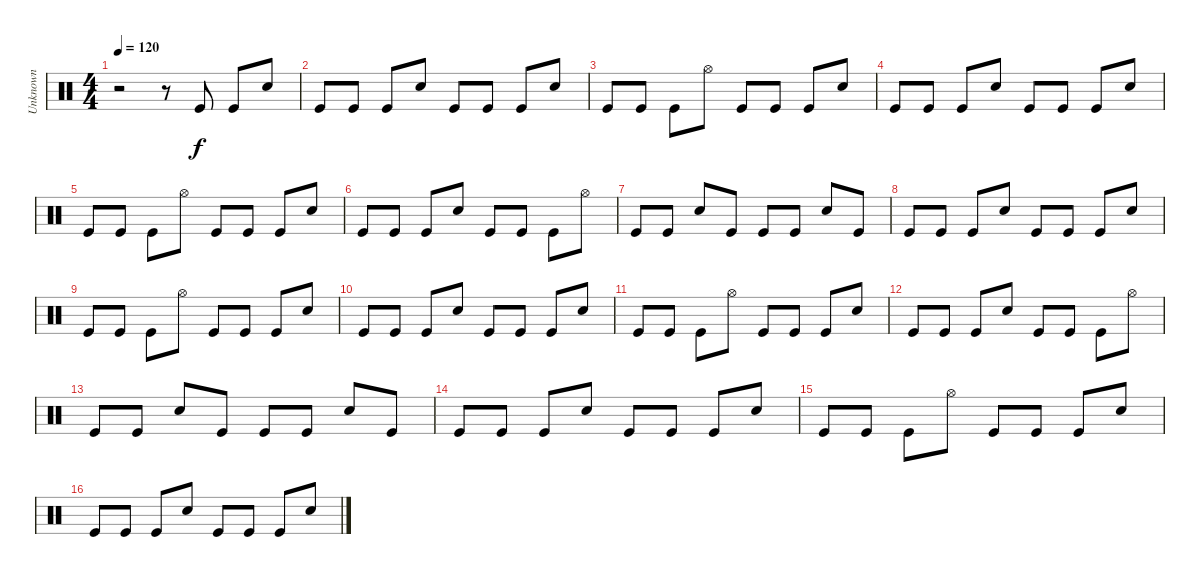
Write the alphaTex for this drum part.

\track ("Unknown" "Unknown") {instrument percussion}
\staff {score}
\articulation defaults
\ts (4 4)
\tempo 120
\clef neutral
\ks c
r.2{dy fff} r.8 "Kick (hit)".8{dy f} "Kick (hit)".8 "Snare (hit) 2".8 |
"Kick (hit)".8 "Kick (hit)".8 "Kick (hit)".8 "Snare (hit) 2".8 "Kick (hit)".8 "Kick (hit)".8 "Kick (hit)".8 "Snare (hit) 2".8 |
"Kick (hit)".8 "Kick (hit)".8 "Kick (hit)".8 "Hi-Hat (open)".8 "Kick (hit)".8 "Kick (hit)".8 "Kick (hit)".8 "Snare (hit) 2".8 |
"Kick (hit)".8 "Kick (hit)".8 "Kick (hit)".8 "Snare (hit) 2".8 "Kick (hit)".8 "Kick (hit)".8 "Kick (hit)".8 "Snare (hit) 2".8 |
"Kick (hit)".8 "Kick (hit)".8 "Kick (hit)".8 "Hi-Hat (open)".8 "Kick (hit)".8 "Kick (hit)".8 "Kick (hit)".8 "Snare (hit) 2".8 |
"Kick (hit)".8 "Kick (hit)".8 "Kick (hit)".8 "Snare (hit) 2".8 "Kick (hit)".8 "Kick (hit)".8 "Kick (hit)".8 "Hi-Hat (open)".8 |
"Kick (hit)".8 "Kick (hit)".8 "Snare (hit) 2".8 "Kick (hit)".8 "Kick (hit)".8 "Kick (hit)".8 "Snare (hit) 2".8 "Kick (hit)".8 |
"Kick (hit)".8 "Kick (hit)".8 "Kick (hit)".8 "Snare (hit) 2".8 "Kick (hit)".8 "Kick (hit)".8 "Kick (hit)".8 "Snare (hit) 2".8 |
"Kick (hit)".8 "Kick (hit)".8 "Kick (hit)".8 "Hi-Hat (open)".8 "Kick (hit)".8 "Kick (hit)".8 "Kick (hit)".8 "Snare (hit) 2".8 |
"Kick (hit)".8 "Kick (hit)".8 "Kick (hit)".8 "Snare (hit) 2".8 "Kick (hit)".8 "Kick (hit)".8 "Kick (hit)".8 "Snare (hit) 2".8 |
"Kick (hit)".8 "Kick (hit)".8 "Kick (hit)".8 "Hi-Hat (open)".8 "Kick (hit)".8 "Kick (hit)".8 "Kick (hit)".8 "Snare (hit) 2".8 |
"Kick (hit)".8 "Kick (hit)".8 "Kick (hit)".8 "Snare (hit) 2".8 "Kick (hit)".8 "Kick (hit)".8 "Kick (hit)".8 "Hi-Hat (open)".8 |
"Kick (hit)".8 "Kick (hit)".8 "Snare (hit) 2".8 "Kick (hit)".8 "Kick (hit)".8 "Kick (hit)".8 "Snare (hit) 2".8 "Kick (hit)".8 |
"Kick (hit)".8 "Kick (hit)".8 "Kick (hit)".8 "Snare (hit) 2".8 "Kick (hit)".8 "Kick (hit)".8 "Kick (hit)".8 "Snare (hit) 2".8 |
"Kick (hit)".8 "Kick (hit)".8 "Kick (hit)".8 "Hi-Hat (open)".8 "Kick (hit)".8 "Kick (hit)".8 "Kick (hit)".8 "Snare (hit) 2".8 |
"Kick (hit)".8 "Kick (hit)".8 "Kick (hit)".8 "Snare (hit) 2".8 "Kick (hit)".8 "Kick (hit)".8 "Kick (hit)".8 "Snare (hit) 2".8
